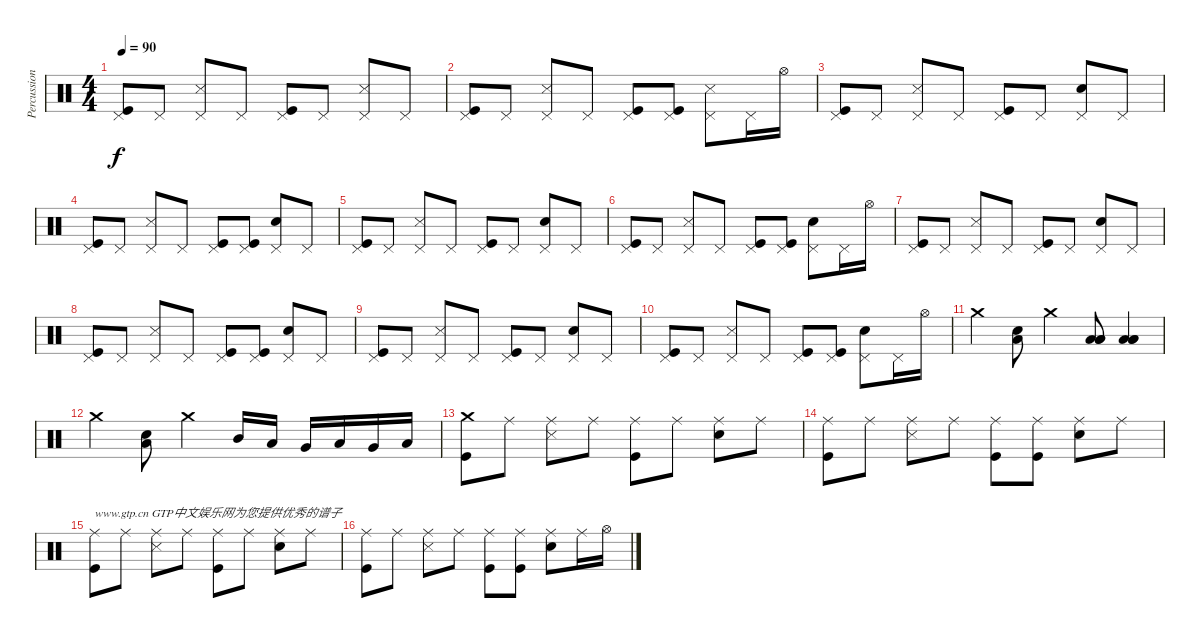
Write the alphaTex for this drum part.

\track ("Percussion" "Percussion") {instrument percussion}
\staff {score}
\articulation defaults
\ts (4 4)
\tempo 90
\clef neutral
\ks c
("Pedal Hi-Hat (hit)" "Kick (hit)").8{dy f} "Pedal Hi-Hat (hit)".8 ("Pedal Hi-Hat (hit)" "Snare (side stick) 3").8 "Pedal Hi-Hat (hit)".8 ("Pedal Hi-Hat (hit)" "Kick (hit)").8 "Pedal Hi-Hat (hit)".8 ("Pedal Hi-Hat (hit)" "Snare (side stick) 3").8 "Pedal Hi-Hat (hit)".8 |
("Pedal Hi-Hat (hit)" "Kick (hit)").8 "Pedal Hi-Hat (hit)".8 ("Pedal Hi-Hat (hit)" "Snare (side stick) 3").8 "Pedal Hi-Hat (hit)".8 ("Pedal Hi-Hat (hit)" "Kick (hit)").8 ("Pedal Hi-Hat (hit)" "Kick (hit)").8 ("Pedal Hi-Hat (hit)" "Snare (side stick) 3").8 "Pedal Hi-Hat (hit)".16 "Hi-Hat (open)".16 |
("Pedal Hi-Hat (hit)" "Kick (hit)").8 "Pedal Hi-Hat (hit)".8 ("Pedal Hi-Hat (hit)" "Snare (side stick) 3").8 "Pedal Hi-Hat (hit)".8 ("Pedal Hi-Hat (hit)" "Kick (hit)").8 "Pedal Hi-Hat (hit)".8 ("Pedal Hi-Hat (hit)" "Electric Snare (hit)").8 "Pedal Hi-Hat (hit)".8 |
("Pedal Hi-Hat (hit)" "Kick (hit)").8 "Pedal Hi-Hat (hit)".8 ("Pedal Hi-Hat (hit)" "Snare (side stick) 3").8 "Pedal Hi-Hat (hit)".8 ("Pedal Hi-Hat (hit)" "Kick (hit)").8 ("Pedal Hi-Hat (hit)" "Kick (hit)").8 ("Pedal Hi-Hat (hit)" "Electric Snare (hit)").8 "Pedal Hi-Hat (hit)".8 |
("Pedal Hi-Hat (hit)" "Kick (hit)").8 "Pedal Hi-Hat (hit)".8 ("Pedal Hi-Hat (hit)" "Snare (side stick) 3").8 "Pedal Hi-Hat (hit)".8 ("Pedal Hi-Hat (hit)" "Kick (hit)").8 "Pedal Hi-Hat (hit)".8 ("Pedal Hi-Hat (hit)" "Electric Snare (hit)").8 "Pedal Hi-Hat (hit)".8 |
("Pedal Hi-Hat (hit)" "Kick (hit)").8 "Pedal Hi-Hat (hit)".8 ("Pedal Hi-Hat (hit)" "Snare (side stick) 3").8 "Pedal Hi-Hat (hit)".8 ("Pedal Hi-Hat (hit)" "Kick (hit)").8 ("Pedal Hi-Hat (hit)" "Kick (hit)").8 ("Pedal Hi-Hat (hit)" "Electric Snare (hit)").8 "Pedal Hi-Hat (hit)".16 "Hi-Hat (open)".16 |
("Pedal Hi-Hat (hit)" "Kick (hit)").8 "Pedal Hi-Hat (hit)".8 ("Pedal Hi-Hat (hit)" "Snare (side stick) 3").8 "Pedal Hi-Hat (hit)".8 ("Pedal Hi-Hat (hit)" "Kick (hit)").8 "Pedal Hi-Hat (hit)".8 ("Pedal Hi-Hat (hit)" "Electric Snare (hit)").8 "Pedal Hi-Hat (hit)".8 |
("Pedal Hi-Hat (hit)" "Kick (hit)").8 "Pedal Hi-Hat (hit)".8 ("Pedal Hi-Hat (hit)" "Snare (side stick) 3").8 "Pedal Hi-Hat (hit)".8 ("Pedal Hi-Hat (hit)" "Kick (hit)").8 ("Pedal Hi-Hat (hit)" "Kick (hit)").8 ("Pedal Hi-Hat (hit)" "Electric Snare (hit)").8 "Pedal Hi-Hat (hit)".8 |
("Pedal Hi-Hat (hit)" "Kick (hit)").8 "Pedal Hi-Hat (hit)".8 ("Pedal Hi-Hat (hit)" "Snare (side stick) 3").8 "Pedal Hi-Hat (hit)".8 ("Pedal Hi-Hat (hit)" "Kick (hit)").8 "Pedal Hi-Hat (hit)".8 ("Pedal Hi-Hat (hit)" "Electric Snare (hit)").8 "Pedal Hi-Hat (hit)".8 |
("Pedal Hi-Hat (hit)" "Kick (hit)").8 "Pedal Hi-Hat (hit)".8 ("Pedal Hi-Hat (hit)" "Snare (side stick) 3").8 "Pedal Hi-Hat (hit)".8 ("Pedal Hi-Hat (hit)" "Kick (hit)").8 ("Pedal Hi-Hat (hit)" "Kick (hit)").8 ("Pedal Hi-Hat (hit)" "Electric Snare (hit)").8 "Pedal Hi-Hat (hit)".16 "Hi-Hat (open)".16 |
"Crash medium (hit)".4 ("Low Tom (hit)" "Electric Snare (hit)").8 "Crash medium (hit)".4 ("Low Tom (hit)" "Low Tom (hit)" "Low Tom (hit)").8 ("Low Tom (hit)" "Low Tom (hit)" "Low Tom (hit)").4 |
"Crash medium (hit)".4 ("Low Tom (hit)" "Electric Snare (hit)").8 "Crash medium (hit)".4 "Mid Tom (hit)".16 "Low Tom (hit)".16 "Very Low Tom (hit)".16 "Low Floor Tom (hit)".16 "Very Low Tom (hit)".16 "Low Floor Tom (hit)".16 |
("Kick (hit)" "Crash medium (hit)").8 "Ride (middle)".8 ("Ride (middle)" "Snare (side stick) 3").8 "Ride (middle)".8 ("Ride (middle)" "Kick (hit)").8 "Ride (middle)".8 ("Ride (middle)" "Electric Snare (hit)").8 "Ride (middle)".8 |
("Ride (middle)" "Kick (hit)").8 "Ride (middle)".8 ("Ride (middle)" "Snare (side stick) 3").8 "Ride (middle)".8 ("Ride (middle)" "Kick (hit)").8 ("Ride (middle)" "Kick (hit)").8 ("Ride (middle)" "Electric Snare (hit)").8 "Ride (middle)".8 |
("Ride (middle)" "Kick (hit)").8{txt "www.gtp.cn GTP中文娱乐网为您提供优秀的谱子"} "Ride (middle)".8 ("Ride (middle)" "Snare (side stick) 3").8 "Ride (middle)".8 ("Ride (middle)" "Kick (hit)").8 "Ride (middle)".8 ("Ride (middle)" "Electric Snare (hit)").8 "Ride (middle)".8 |
("Ride (middle)" "Kick (hit)").8 "Ride (middle)".8 ("Ride (middle)" "Snare (side stick) 3").8 "Ride (middle)".8 ("Ride (middle)" "Kick (hit)").8 ("Ride (middle)" "Kick (hit)").8 ("Ride (middle)" "Electric Snare (hit)").8 "Ride (middle)".16 "Hi-Hat (open)".16
